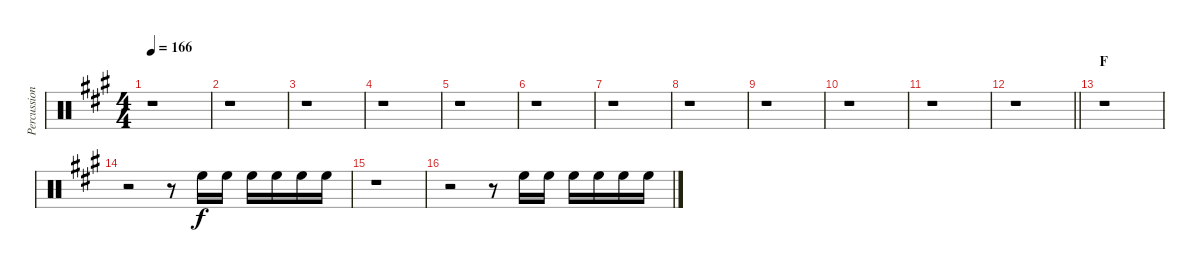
\track ("Percussion I" "Percussion") {instrument percussion}
\staff {score}
\articulation defaults
\ts (4 4)
\tempo 166
\clef neutral
\ks a
r.1{dy mp} |
r.1 |
r.1 |
r.1 |
r.1 |
r.1 |
r.1 |
r.1 |
r.1 |
r.1 |
r.1 |
\barLineRight lightlight
r.1 |
\section ("" "F")
r.1 |
r.2 r.8 "High Floor Tom (hit)".16{dy f} "High Floor Tom (hit)".16 "High Floor Tom (hit)".16 "High Floor Tom (hit)".16 "High Floor Tom (hit)".16 "High Floor Tom (hit)".16 |
r.1 |
r.2 r.8 "High Floor Tom (hit)".16 "High Floor Tom (hit)".16 "High Floor Tom (hit)".16 "High Floor Tom (hit)".16 "High Floor Tom (hit)".16 "High Floor Tom (hit)".16
